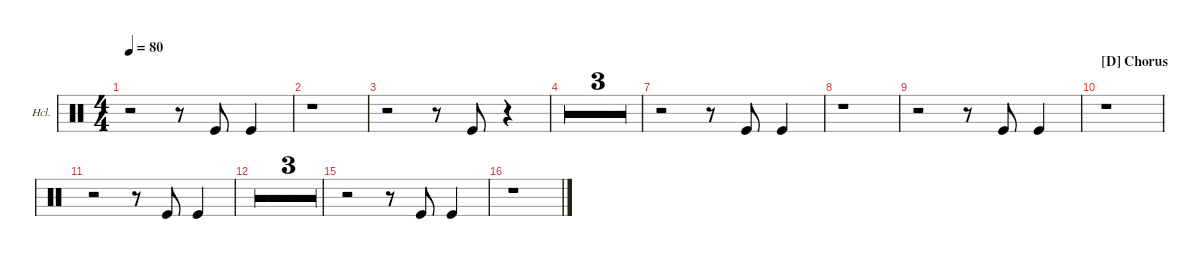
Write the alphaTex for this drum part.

\defaultSystemsLayout 4
\hideDynamics
\bracketExtendMode groupsimilarinstruments
\firstSystemTrackNameOrientation horizontal
\otherSystemsTrackNameOrientation horizontal
\track ("Hand Clap" "Hcl.") {multiBarRest instrument percussion}
\staff {score}
\articulation defaults
\ts (4 4)
\tempo 80
\clef neutral
\ks c
r.2{dy mp} r.8 "Kick (hit)".8 "Kick (hit)".4 |
r.1 |
r.2 r.8 "Kick (hit)".8 r.4 |
r.1 |
r.1 |
r.1 |
r.2 r.8 "Kick (hit)".8 "Kick (hit)".4 |
r.1 |
r.2 r.8 "Kick (hit)".8 "Kick (hit)".4 |
\section ("D" "Chorus")
r.1 |
r.2 r.8 "Kick (hit)".8 "Kick (hit)".4 |
r.1 |
r.1 |
r.1 |
r.2 r.8 "Kick (hit)".8 "Kick (hit)".4 |
r.1
